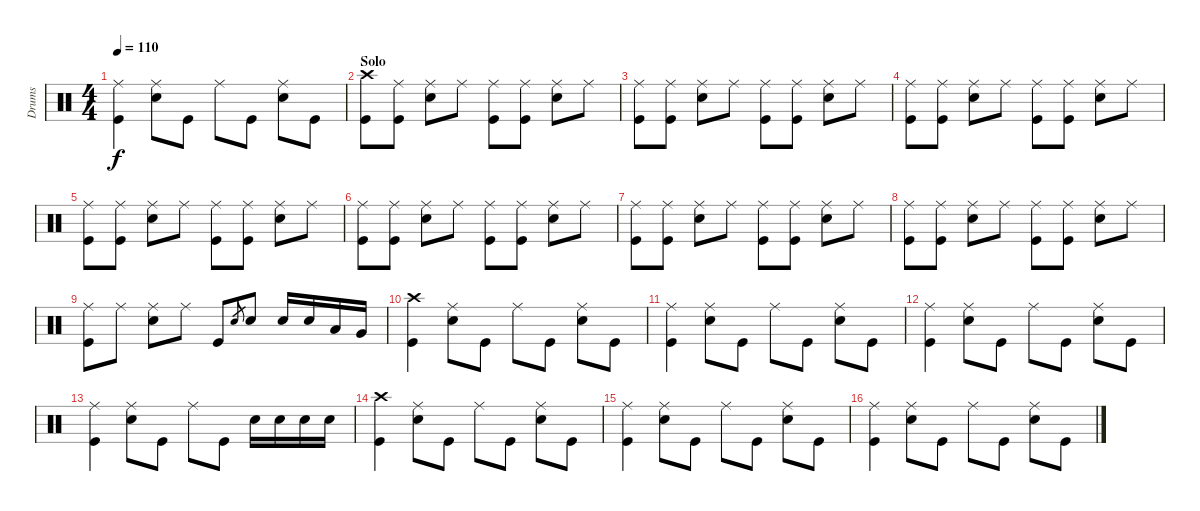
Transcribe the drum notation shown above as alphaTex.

\track ("Drums" "Drums") {instrument percussion}
\staff {score}
\articulation defaults
\ts (4 4)
\tempo 110
\clef neutral
\ks c
("Ride (middle)" "Kick (hit)").4{dy f} ("Ride (middle)" "Electric Snare (hit)").8 "Kick (hit)".8 "Ride (middle)".8 "Kick (hit)".8 ("Ride (middle)" "Electric Snare (hit)").8 "Kick (hit)".8 |
\section ("" "Solo")
("Crash high (hit)" "Kick (hit)").8 ("Ride (middle)" "Kick (hit)").8 ("Ride (middle)" "Electric Snare (hit)").8 "Ride (middle)".8 ("Ride (middle)" "Kick (hit)").8 ("Ride (middle)" "Kick (hit)").8 ("Ride (middle)" "Electric Snare (hit)").8 "Ride (middle)".8 |
("Ride (middle)" "Kick (hit)").8 ("Ride (middle)" "Kick (hit)").8 ("Ride (middle)" "Electric Snare (hit)").8 "Ride (middle)".8 ("Ride (middle)" "Kick (hit)").8 ("Ride (middle)" "Kick (hit)").8 ("Ride (middle)" "Electric Snare (hit)").8 "Ride (middle)".8 |
("Ride (middle)" "Kick (hit)").8 ("Ride (middle)" "Kick (hit)").8 ("Ride (middle)" "Electric Snare (hit)").8 "Ride (middle)".8 ("Ride (middle)" "Kick (hit)").8 ("Ride (middle)" "Kick (hit)").8 ("Ride (middle)" "Electric Snare (hit)").8 "Ride (middle)".8 |
("Ride (middle)" "Kick (hit)").8 ("Ride (middle)" "Kick (hit)").8 ("Ride (middle)" "Electric Snare (hit)").8 "Ride (middle)".8 ("Ride (middle)" "Kick (hit)").8 ("Ride (middle)" "Kick (hit)").8 ("Ride (middle)" "Electric Snare (hit)").8 "Ride (middle)".8 |
("Ride (middle)" "Kick (hit)").8 ("Ride (middle)" "Kick (hit)").8 ("Ride (middle)" "Electric Snare (hit)").8 "Ride (middle)".8 ("Ride (middle)" "Kick (hit)").8 ("Ride (middle)" "Kick (hit)").8 ("Ride (middle)" "Electric Snare (hit)").8 "Ride (middle)".8 |
("Ride (middle)" "Kick (hit)").8 ("Ride (middle)" "Kick (hit)").8 ("Ride (middle)" "Electric Snare (hit)").8 "Ride (middle)".8 ("Ride (middle)" "Kick (hit)").8 ("Ride (middle)" "Kick (hit)").8 ("Ride (middle)" "Electric Snare (hit)").8 "Ride (middle)".8 |
("Ride (middle)" "Kick (hit)").8 ("Ride (middle)" "Kick (hit)").8 ("Ride (middle)" "Electric Snare (hit)").8 "Ride (middle)".8 ("Ride (middle)" "Kick (hit)").8 ("Ride (middle)" "Kick (hit)").8 ("Ride (middle)" "Electric Snare (hit)").8 "Ride (middle)".8 |
("Ride (middle)" "Kick (hit)").8 "Ride (middle)".8 ("Ride (middle)" "Electric Snare (hit)").8 "Ride (middle)".8 "Kick (hit)".8 "Electric Snare (hit)".8{gr} "Electric Snare (hit)".8 "Electric Snare (hit)".16 "Electric Snare (hit)".16 "Low Tom (hit)".16 "Very Low Tom (hit)".16 |
\section ("" "")
("Crash high (hit)" "Kick (hit)").4 ("Ride (middle)" "Electric Snare (hit)").8 "Kick (hit)".8 "Ride (middle)".8 "Kick (hit)".8 ("Ride (middle)" "Electric Snare (hit)").8 "Kick (hit)".8 |
("Ride (middle)" "Kick (hit)").4 ("Ride (middle)" "Electric Snare (hit)").8 "Kick (hit)".8 "Ride (middle)".8 "Kick (hit)".8 ("Ride (middle)" "Electric Snare (hit)").8 "Kick (hit)".8 |
("Ride (middle)" "Kick (hit)").4 ("Ride (middle)" "Electric Snare (hit)").8 "Kick (hit)".8 "Ride (middle)".8 "Kick (hit)".8 ("Ride (middle)" "Electric Snare (hit)").8 "Kick (hit)".8 |
("Ride (middle)" "Kick (hit)").4 ("Ride (middle)" "Electric Snare (hit)").8 "Kick (hit)".8 "Ride (middle)".8 "Kick (hit)".8 "Electric Snare (hit)".16 "Electric Snare (hit)".16 "Electric Snare (hit)".16 "Electric Snare (hit)".16 |
("Crash high (hit)" "Kick (hit)").4 ("Ride (middle)" "Electric Snare (hit)").8 "Kick (hit)".8 "Ride (middle)".8 "Kick (hit)".8 ("Ride (middle)" "Electric Snare (hit)").8 "Kick (hit)".8 |
("Ride (middle)" "Kick (hit)").4 ("Ride (middle)" "Electric Snare (hit)").8 "Kick (hit)".8 "Ride (middle)".8 "Kick (hit)".8 ("Ride (middle)" "Electric Snare (hit)").8 "Kick (hit)".8 |
("Ride (middle)" "Kick (hit)").4 ("Ride (middle)" "Electric Snare (hit)").8 "Kick (hit)".8 "Ride (middle)".8 "Kick (hit)".8 ("Ride (middle)" "Electric Snare (hit)").8 "Kick (hit)".8
